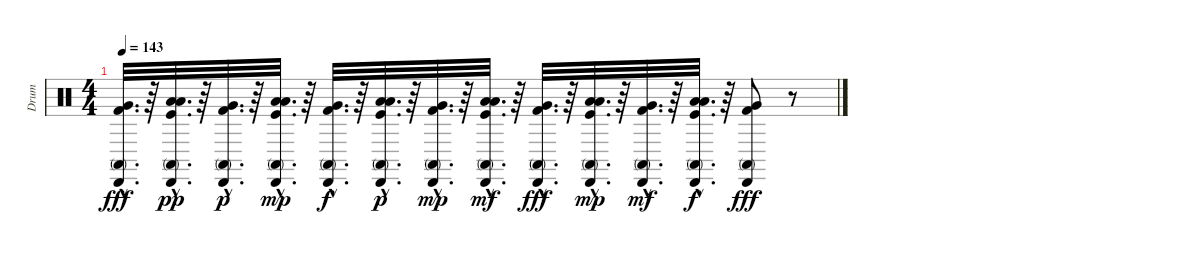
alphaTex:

\track ("Drum" "Drum") {instrument percussion}
\staff {score}
\articulation defaults
\ts (4 4)
\tempo 143
\clef neutral
\ks c
("Very Low Tom (hit)"{hac} "Conga high (mute)"{hac} "Cabasa (hit)"{hac} "Kick (hit) 2"{hac}).32{d dy fff} r.64 ("Low Tom (hit)"{hac} "Low Floor Tom (hit)"{hac} "Conga high (mute)"{hac} "Cabasa (hit)"{hac} "Kick (hit)"{hac}).32{d dy pp} r.64 ("Very Low Tom (hit)"{hac} "Conga high (mute)"{hac} "Cabasa (hit)"{hac} "Kick (hit) 2"{hac}).32{d dy p} r.64 ("Cabasa (hit)"{hac} "Low Tom (hit)"{hac} "Low Floor Tom (hit)"{hac} "Conga high (mute)"{hac} "Kick (hit)"{hac}).32{d dy mp} r.64 ("Kick (hit) 2"{hac} "Cabasa (hit)"{hac} "Conga high (mute)"{hac} "Very Low Tom (hit)"{hac}).32{d dy f} r.64 ("Kick (hit)"{hac} "Cabasa (hit)"{hac} "Conga high (mute)"{hac} "Low Floor Tom (hit)"{hac} "Low Tom (hit)"{hac}).32{d dy p} r.64 ("Kick (hit) 2"{hac} "Cabasa (hit)"{hac} "Conga high (mute)"{hac} "Very Low Tom (hit)"{hac}).32{d dy mp} r.64 ("Kick (hit)"{hac} "Conga high (mute)"{hac} "Low Floor Tom (hit)"{hac} "Low Tom (hit)"{hac} "Cabasa (hit)"{hac}).32{d dy mf} r.64 ("Kick (hit) 2"{hac} "Cabasa (hit)"{hac} "Conga high (mute)"{hac} "Very Low Tom (hit)"{hac}).32{d dy fff} r.64 ("Kick (hit)"{hac} "Cabasa (hit)"{hac} "Conga high (mute)"{hac} "Low Floor Tom (hit)"{hac} "Low Tom (hit)"{hac}).32{d dy mp} r.64 ("Kick (hit) 2"{hac} "Cabasa (hit)"{hac} "Conga high (mute)"{hac} "Very Low Tom (hit)"{hac}).32{d dy mf} r.64 ("Kick (hit)"{hac} "Conga high (mute)"{hac} "Low Floor Tom (hit)"{hac} "Low Tom (hit)"{hac} "Cabasa (hit)"{hac}).32{d dy f} r.64 ("Kick (hit) 2" "Cabasa (hit)" "Conga high (mute)" "Very Low Tom (hit)").8{dy fff} r.8
